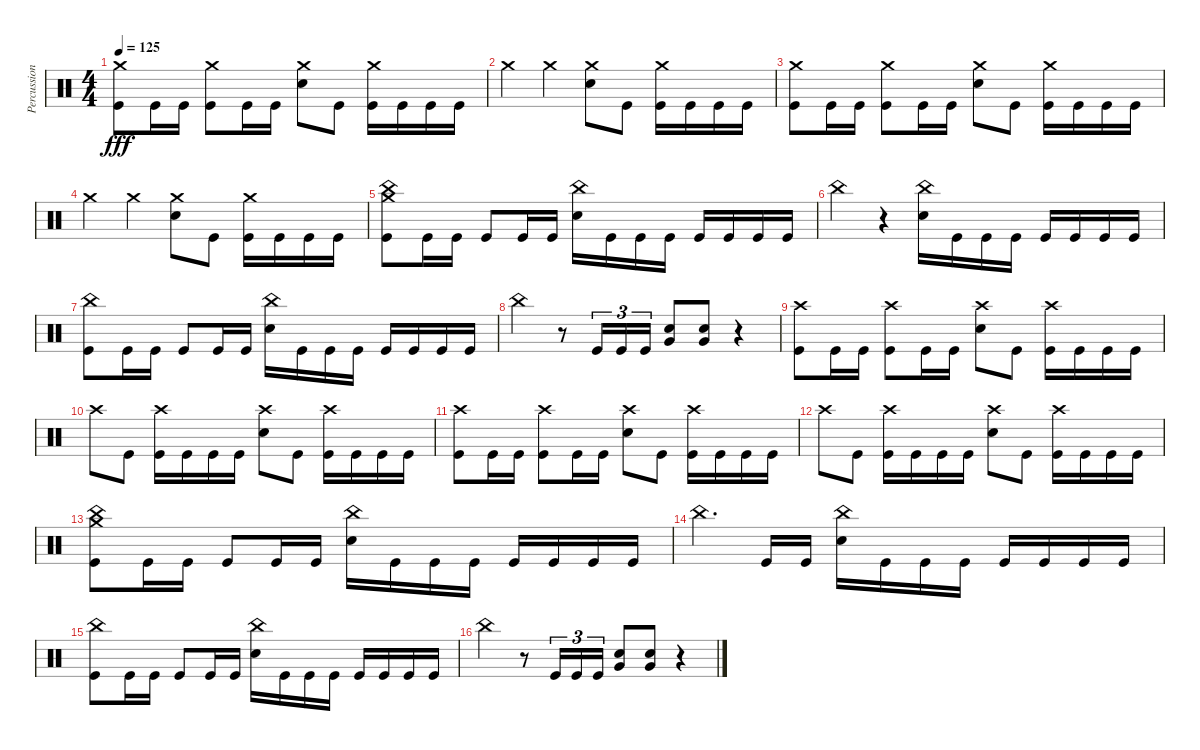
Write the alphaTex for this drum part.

\track ("Percussion" "Percussion") {instrument percussion}
\staff {score}
\articulation defaults
\ts (4 4)
\tempo 125
\clef neutral
\ks c
("Crash medium (hit)" "Kick (hit)").8{dy fff} "Kick (hit)".16 "Kick (hit)".16 ("Crash medium (hit)" "Kick (hit)").8 "Kick (hit)".16 "Kick (hit)".16 ("Crash medium (hit)" "Snare (hit) 2").8 "Kick (hit)".8 ("Crash medium (hit)" "Kick (hit)").16 "Kick (hit)".16 "Kick (hit)".16 "Kick (hit)".16 |
"Crash medium (hit)".4 "Crash medium (hit)".4 ("Crash medium (hit)" "Snare (hit) 2").8 "Kick (hit)".8 ("Crash medium (hit)" "Kick (hit)").16 "Kick (hit)".16 "Kick (hit)".16 "Kick (hit)".16 |
("Crash medium (hit)" "Kick (hit)").8 "Kick (hit)".16 "Kick (hit)".16 ("Crash medium (hit)" "Kick (hit)").8 "Kick (hit)".16 "Kick (hit)".16 ("Crash medium (hit)" "Snare (hit) 2").8 "Kick (hit)".8 ("Crash medium (hit)" "Kick (hit)").16 "Kick (hit)".16 "Kick (hit)".16 "Kick (hit)".16 |
"Crash medium (hit)".4 "Crash medium (hit)".4 ("Crash medium (hit)" "Snare (hit) 2").8 "Kick (hit)".8 ("Crash medium (hit)" "Kick (hit)").16 "Kick (hit)".16 "Kick (hit)".16 "Kick (hit)".16 |
("China (hit)" "Crash medium (hit)" "Kick (hit)").8 "Kick (hit)".16 "Kick (hit)".16 "Kick (hit)".8 "Kick (hit)".16 "Kick (hit)".16 ("China (hit)" "Snare (hit) 2").16 "Kick (hit)".16 "Kick (hit)".16 "Kick (hit)".16 "Kick (hit)".16 "Kick (hit)".16 "Kick (hit)".16 "Kick (hit)".16 |
"China (hit)".4 r.4 ("China (hit)" "Snare (hit) 2").16 "Kick (hit)".16 "Kick (hit)".16 "Kick (hit)".16 "Kick (hit)".16 "Kick (hit)".16 "Kick (hit)".16 "Kick (hit)".16 |
("China (hit)" "Kick (hit)").8 "Kick (hit)".16 "Kick (hit)".16 "Kick (hit)".8 "Kick (hit)".16 "Kick (hit)".16 ("China (hit)" "Snare (hit) 2").16 "Kick (hit)".16 "Kick (hit)".16 "Kick (hit)".16 "Kick (hit)".16 "Kick (hit)".16 "Kick (hit)".16 "Kick (hit)".16 |
"China (hit)".4 r.8 "Kick (hit)".16{tu (3 2)} "Kick (hit)".16{tu (3 2)} "Kick (hit)".16{tu (3 2)} ("Very Low Tom (hit)" "Snare (hit) 2").8 ("Very Low Tom (hit)" "Snare (hit) 2").8 r.4 |
("Crash high (hit)" "Kick (hit)").8 "Kick (hit)".16 "Kick (hit)".16 ("Crash high (hit)" "Kick (hit)").8 "Kick (hit)".16 "Kick (hit)".16 ("Crash high (hit)" "Snare (hit) 2").8 "Kick (hit)".8 ("Crash high (hit)" "Kick (hit)").16 "Kick (hit)".16 "Kick (hit)".16 "Kick (hit)".16 |
"Crash high (hit)".8 "Kick (hit)".8 ("Crash high (hit)" "Kick (hit)").16 "Kick (hit)".16 "Kick (hit)".16 "Kick (hit)".16 ("Crash high (hit)" "Snare (hit) 2").8 "Kick (hit)".8 ("Crash high (hit)" "Kick (hit)").16 "Kick (hit)".16 "Kick (hit)".16 "Kick (hit)".16 |
("Crash high (hit)" "Kick (hit)").8 "Kick (hit)".16 "Kick (hit)".16 ("Crash high (hit)" "Kick (hit)").8 "Kick (hit)".16 "Kick (hit)".16 ("Crash high (hit)" "Snare (hit) 2").8 "Kick (hit)".8 ("Crash high (hit)" "Kick (hit)").16 "Kick (hit)".16 "Kick (hit)".16 "Kick (hit)".16 |
"Crash high (hit)".8 "Kick (hit)".8 ("Crash high (hit)" "Kick (hit)").16 "Kick (hit)".16 "Kick (hit)".16 "Kick (hit)".16 ("Crash high (hit)" "Snare (hit) 2").8 "Kick (hit)".8 ("Crash high (hit)" "Kick (hit)").16 "Kick (hit)".16 "Kick (hit)".16 "Kick (hit)".16 |
("China (hit)" "Crash medium (hit)" "Kick (hit)").8 "Kick (hit)".16 "Kick (hit)".16 "Kick (hit)".8 "Kick (hit)".16 "Kick (hit)".16 ("China (hit)" "Snare (hit) 2").16 "Kick (hit)".16 "Kick (hit)".16 "Kick (hit)".16 "Kick (hit)".16 "Kick (hit)".16 "Kick (hit)".16 "Kick (hit)".16 |
"China (hit)".4{d} "Kick (hit)".16 "Kick (hit)".16 ("China (hit)" "Snare (hit) 2").16 "Kick (hit)".16 "Kick (hit)".16 "Kick (hit)".16 "Kick (hit)".16 "Kick (hit)".16 "Kick (hit)".16 "Kick (hit)".16 |
("China (hit)" "Kick (hit)").8 "Kick (hit)".16 "Kick (hit)".16 "Kick (hit)".8 "Kick (hit)".16 "Kick (hit)".16 ("China (hit)" "Snare (hit) 2").16 "Kick (hit)".16 "Kick (hit)".16 "Kick (hit)".16 "Kick (hit)".16 "Kick (hit)".16 "Kick (hit)".16 "Kick (hit)".16 |
"China (hit)".4 r.8 "Kick (hit)".16{tu (3 2)} "Kick (hit)".16{tu (3 2)} "Kick (hit)".16{tu (3 2)} ("Very Low Tom (hit)" "Snare (hit) 2").8 ("Very Low Tom (hit)" "Snare (hit) 2").8 r.4
